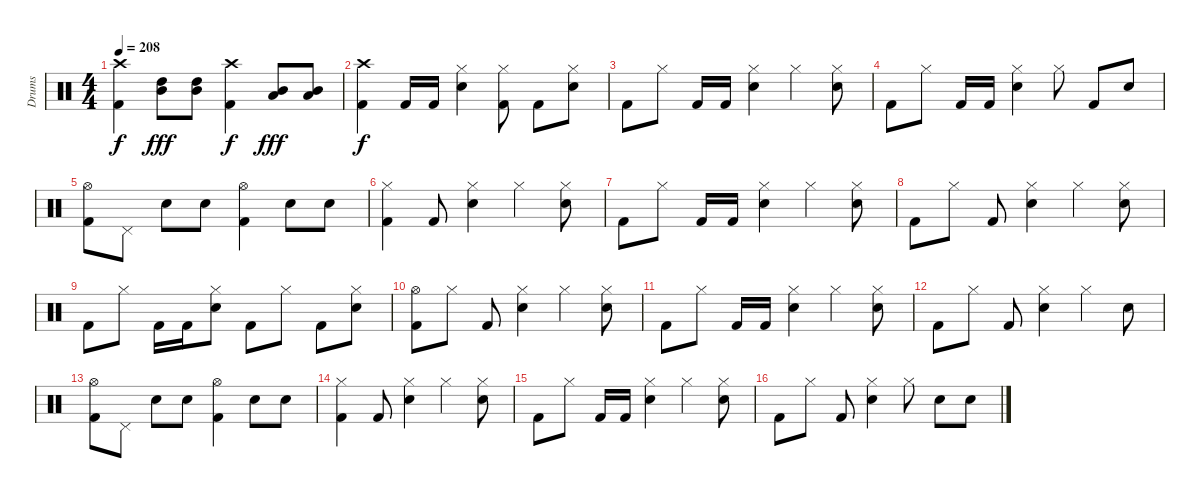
\track ("Drums" "Drums") {instrument percussion}
\staff {score}
\articulation defaults
\ts (4 4)
\tempo 208
\clef neutral
\ks c
("Crash high (hit)" "Kick (hit) 2").4{dy f} ("High Tom (hit)" "Mid Tom (hit)").8{dy fff} ("High Tom (hit)" "Mid Tom (hit)").8 ("Crash high (hit)" "Kick (hit) 2").4{dy f} ("Mid Tom (hit)" "Low Tom (hit)").8{dy fff} ("Mid Tom (hit)" "Low Tom (hit)").8 |
("Crash high (hit)" "Kick (hit) 2").4{dy f} "Kick (hit) 2".16 "Kick (hit) 2".16 ("Hi-Hat (closed)" "Electric Snare (hit)").4 ("Hi-Hat (closed)" "Kick (hit) 2").8 "Kick (hit) 2".8 ("Hi-Hat (closed)" "Electric Snare (hit)").8 |
"Kick (hit) 2".8 "Hi-Hat (closed)".8 "Kick (hit) 2".16 "Kick (hit) 2".16 ("Hi-Hat (closed)" "Electric Snare (hit)").4 "Hi-Hat (closed)".4 ("Hi-Hat (closed)" "Electric Snare (hit)").8 |
"Kick (hit) 2".8 "Hi-Hat (closed)".8 "Kick (hit) 2".16 "Kick (hit) 2".16 ("Hi-Hat (closed)" "Electric Snare (hit)").4 "Hi-Hat (closed)".8 "Kick (hit) 2".8 "Electric Snare (hit)".8 |
("Hi-Hat (open)" "Kick (hit) 2").8 "Pedal Hi-Hat (hit)".8 "Electric Snare (hit)".8 "Electric Snare (hit)".8 ("Hi-Hat (open)" "Kick (hit) 2").4 "Electric Snare (hit)".8 "Electric Snare (hit)".8 |
("Hi-Hat (closed)" "Kick (hit) 2").4 "Kick (hit) 2".8 ("Hi-Hat (closed)" "Electric Snare (hit)").4 "Hi-Hat (closed)".4 ("Hi-Hat (closed)" "Electric Snare (hit)").8 |
"Kick (hit) 2".8 "Hi-Hat (closed)".8 "Kick (hit) 2".16 "Kick (hit) 2".16 ("Hi-Hat (closed)" "Electric Snare (hit)").4 "Hi-Hat (closed)".4 ("Hi-Hat (closed)" "Electric Snare (hit)").8 |
"Kick (hit) 2".8 "Hi-Hat (closed)".8 "Kick (hit) 2".8 ("Hi-Hat (closed)" "Electric Snare (hit)").4 "Hi-Hat (closed)".4 ("Hi-Hat (closed)" "Electric Snare (hit)").8 |
"Kick (hit) 2".8 "Hi-Hat (closed)".8 "Kick (hit) 2".16 "Kick (hit) 2".16 ("Hi-Hat (closed)" "Electric Snare (hit)").8 "Kick (hit) 2".8 "Hi-Hat (closed)".8 "Kick (hit) 2".8 ("Hi-Hat (closed)" "Electric Snare (hit)").8 |
("Hi-Hat (open)" "Kick (hit) 2").8 "Hi-Hat (closed)".8 "Kick (hit) 2".8 ("Hi-Hat (closed)" "Electric Snare (hit)").4 "Hi-Hat (closed)".4 ("Hi-Hat (closed)" "Electric Snare (hit)").8 |
"Kick (hit) 2".8 "Hi-Hat (closed)".8 "Kick (hit) 2".16 "Kick (hit) 2".16 ("Hi-Hat (closed)" "Electric Snare (hit)").4 "Hi-Hat (closed)".4 ("Hi-Hat (closed)" "Electric Snare (hit)").8 |
"Kick (hit) 2".8 "Hi-Hat (closed)".8 "Kick (hit) 2".8 ("Hi-Hat (closed)" "Electric Snare (hit)").4 "Hi-Hat (closed)".4 "Electric Snare (hit)".8 |
("Hi-Hat (open)" "Kick (hit) 2").8 "Pedal Hi-Hat (hit)".8 "Electric Snare (hit)".8 "Electric Snare (hit)".8 ("Hi-Hat (open)" "Kick (hit) 2").4 "Electric Snare (hit)".8 "Electric Snare (hit)".8 |
("Hi-Hat (closed)" "Kick (hit) 2").4 "Kick (hit) 2".8 ("Hi-Hat (closed)" "Electric Snare (hit)").4 "Hi-Hat (closed)".4 ("Hi-Hat (closed)" "Electric Snare (hit)").8 |
"Kick (hit) 2".8 "Hi-Hat (closed)".8 "Kick (hit) 2".16 "Kick (hit) 2".16 ("Hi-Hat (closed)" "Electric Snare (hit)").4 "Hi-Hat (closed)".4 ("Hi-Hat (closed)" "Electric Snare (hit)").8 |
"Kick (hit) 2".8 "Hi-Hat (closed)".8 "Kick (hit) 2".8 ("Hi-Hat (closed)" "Electric Snare (hit)").4 "Hi-Hat (closed)".8 "Electric Snare (hit)".8 "Electric Snare (hit)".8
